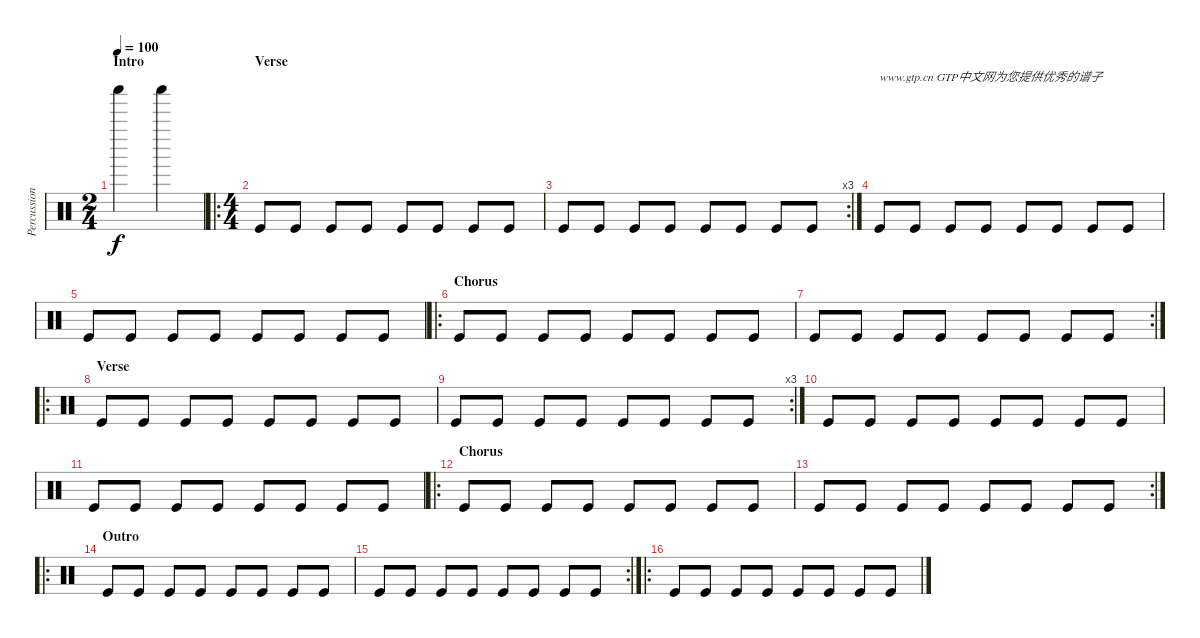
\track ("Percussions" "Percussion") {instrument percussion}
\staff {score}
\articulation defaults
\ts (2 4)
\section ("" "Intro")
\tempo 100
\clef neutral
\ks c "Shaker (hit)".4{dy f} "Shaker (hit)".4
|
\ro
\ts (4 4)
\section ("" "Verse")
"Kick (hit)".8 "Kick (hit)".8 "Kick (hit)".8 "Kick (hit)".8 "Kick (hit)".8 "Kick (hit)".8 "Kick (hit)".8 "Kick (hit)".8 |
\rc 3 "Kick (hit)".8 "Kick (hit)".8 "Kick (hit)".8 "Kick (hit)".8 "Kick (hit)".8 "Kick (hit)".8 "Kick (hit)".8 "Kick (hit)".8
|
"Kick (hit)".8{txt "www.gtp.cn GTP中文网为您提供优秀的谱子"} "Kick (hit)".8 "Kick (hit)".8 "Kick (hit)".8 "Kick (hit)".8 "Kick (hit)".8 "Kick (hit)".8 "Kick (hit)".8 |
"Kick (hit)".8 "Kick (hit)".8 "Kick (hit)".8 "Kick (hit)".8 "Kick (hit)".8 "Kick (hit)".8 "Kick (hit)".8 "Kick (hit)".8 |
\ro
\section ("" "Chorus")
"Kick (hit)".8 "Kick (hit)".8 "Kick (hit)".8 "Kick (hit)".8 "Kick (hit)".8 "Kick (hit)".8 "Kick (hit)".8 "Kick (hit)".8 |
\rc 2 "Kick (hit)".8 "Kick (hit)".8 "Kick (hit)".8 "Kick (hit)".8 "Kick (hit)".8 "Kick (hit)".8 "Kick (hit)".8 "Kick (hit)".8
|
\ro
\section ("" "Verse")
"Kick (hit)".8 "Kick (hit)".8 "Kick (hit)".8 "Kick (hit)".8 "Kick (hit)".8 "Kick (hit)".8 "Kick (hit)".8 "Kick (hit)".8 |
\rc 3 "Kick (hit)".8 "Kick (hit)".8 "Kick (hit)".8 "Kick (hit)".8 "Kick (hit)".8 "Kick (hit)".8 "Kick (hit)".8 "Kick (hit)".8
|
"Kick (hit)".8 "Kick (hit)".8 "Kick (hit)".8 "Kick (hit)".8 "Kick (hit)".8 "Kick (hit)".8 "Kick (hit)".8 "Kick (hit)".8 |
"Kick (hit)".8 "Kick (hit)".8 "Kick (hit)".8 "Kick (hit)".8 "Kick (hit)".8 "Kick (hit)".8 "Kick (hit)".8 "Kick (hit)".8 |
\ro
\section ("" "Chorus")
"Kick (hit)".8 "Kick (hit)".8 "Kick (hit)".8 "Kick (hit)".8 "Kick (hit)".8 "Kick (hit)".8 "Kick (hit)".8 "Kick (hit)".8 |
\rc 2 "Kick (hit)".8 "Kick (hit)".8 "Kick (hit)".8 "Kick (hit)".8 "Kick (hit)".8 "Kick (hit)".8 "Kick (hit)".8 "Kick (hit)".8
|
\ro
\section ("" "Outro")
"Kick (hit)".8 "Kick (hit)".8 "Kick (hit)".8 "Kick (hit)".8 "Kick (hit)".8 "Kick (hit)".8 "Kick (hit)".8 "Kick (hit)".8 |
\rc 2 "Kick (hit)".8 "Kick (hit)".8 "Kick (hit)".8 "Kick (hit)".8 "Kick (hit)".8 "Kick (hit)".8 "Kick (hit)".8 "Kick (hit)".8
|
\ro "Kick (hit)".8 "Kick (hit)".8 "Kick (hit)".8 "Kick (hit)".8 "Kick (hit)".8 "Kick (hit)".8 "Kick (hit)".8 "Kick (hit)".8
